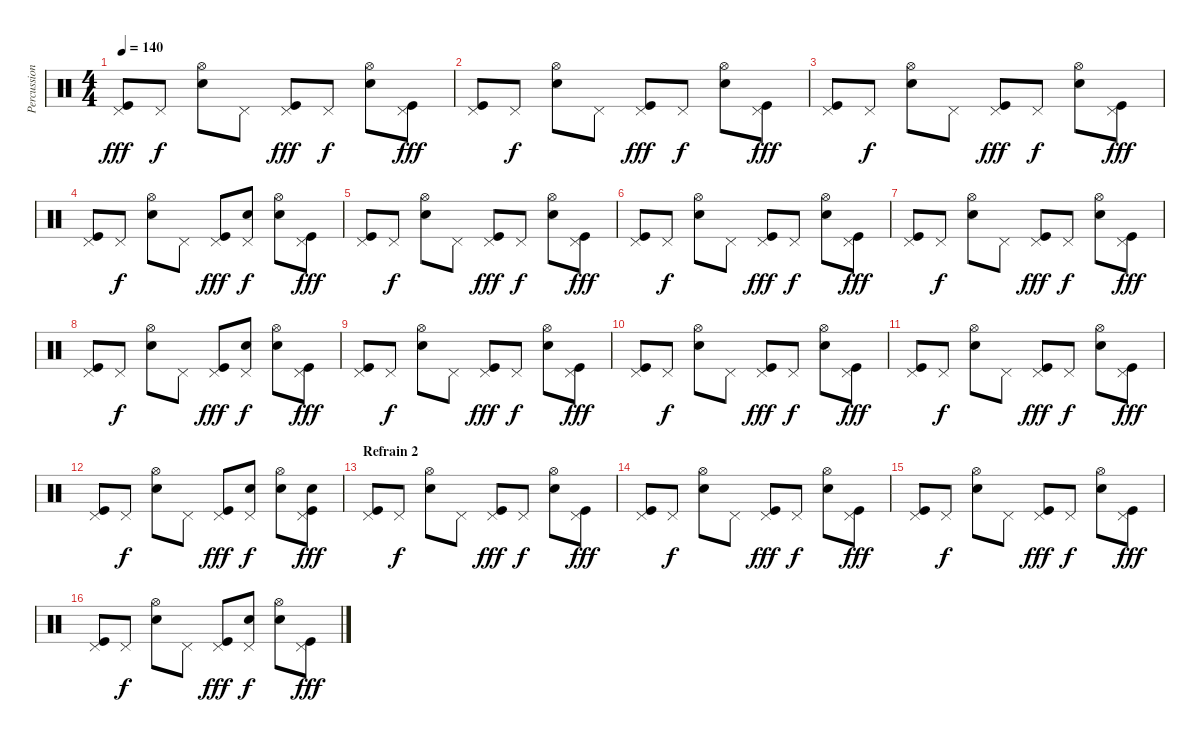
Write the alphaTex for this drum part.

\track ("Percussion" "Percussion") {instrument percussion}
\staff {score}
\articulation defaults
\ts (4 4)
\tempo 140
\clef neutral
\ks c
("Kick (hit)" "Pedal Hi-Hat (hit)").8{dy fff} "Pedal Hi-Hat (hit)".8{dy f} ("Metronome (bell)" "Hi-Hat (open)").8 "Pedal Hi-Hat (hit)".8 ("Kick (hit)" "Pedal Hi-Hat (hit)").8{dy fff} "Pedal Hi-Hat (hit)".8{dy f} ("Metronome (bell)" "Hi-Hat (open)").8 ("Kick (hit)" "Pedal Hi-Hat (hit)").8{dy fff} |
("Kick (hit)" "Pedal Hi-Hat (hit)").8 "Pedal Hi-Hat (hit)".8{dy f} ("Metronome (bell)" "Hi-Hat (open)").8 "Pedal Hi-Hat (hit)".8 ("Kick (hit)" "Pedal Hi-Hat (hit)").8{dy fff} "Pedal Hi-Hat (hit)".8{dy f} ("Metronome (bell)" "Hi-Hat (open)").8 ("Kick (hit)" "Pedal Hi-Hat (hit)").8{dy fff} |
("Kick (hit)" "Pedal Hi-Hat (hit)").8 "Pedal Hi-Hat (hit)".8{dy f} ("Metronome (bell)" "Hi-Hat (open)").8 "Pedal Hi-Hat (hit)".8 ("Kick (hit)" "Pedal Hi-Hat (hit)").8{dy fff} "Pedal Hi-Hat (hit)".8{dy f} ("Metronome (bell)" "Hi-Hat (open)").8 ("Kick (hit)" "Pedal Hi-Hat (hit)").8{dy fff} |
("Kick (hit)" "Pedal Hi-Hat (hit)").8 "Pedal Hi-Hat (hit)".8{dy f} ("Metronome (bell)" "Hi-Hat (open)").8 "Pedal Hi-Hat (hit)".8 ("Kick (hit)" "Pedal Hi-Hat (hit)").8{dy fff} ("Metronome (bell)" "Pedal Hi-Hat (hit)").8{dy f} ("Metronome (bell)" "Hi-Hat (open)").8 ("Kick (hit)" "Pedal Hi-Hat (hit)").8{dy fff} |
("Kick (hit)" "Pedal Hi-Hat (hit)").8 "Pedal Hi-Hat (hit)".8{dy f} ("Metronome (bell)" "Hi-Hat (open)").8 "Pedal Hi-Hat (hit)".8 ("Kick (hit)" "Pedal Hi-Hat (hit)").8{dy fff} "Pedal Hi-Hat (hit)".8{dy f} ("Metronome (bell)" "Hi-Hat (open)").8 ("Kick (hit)" "Pedal Hi-Hat (hit)").8{dy fff} |
("Kick (hit)" "Pedal Hi-Hat (hit)").8 "Pedal Hi-Hat (hit)".8{dy f} ("Metronome (bell)" "Hi-Hat (open)").8 "Pedal Hi-Hat (hit)".8 ("Kick (hit)" "Pedal Hi-Hat (hit)").8{dy fff} "Pedal Hi-Hat (hit)".8{dy f} ("Metronome (bell)" "Hi-Hat (open)").8 ("Kick (hit)" "Pedal Hi-Hat (hit)").8{dy fff} |
("Kick (hit)" "Pedal Hi-Hat (hit)").8 "Pedal Hi-Hat (hit)".8{dy f} ("Metronome (bell)" "Hi-Hat (open)").8 "Pedal Hi-Hat (hit)".8 ("Kick (hit)" "Pedal Hi-Hat (hit)").8{dy fff} "Pedal Hi-Hat (hit)".8{dy f} ("Metronome (bell)" "Hi-Hat (open)").8 ("Kick (hit)" "Pedal Hi-Hat (hit)").8{dy fff} |
("Kick (hit)" "Pedal Hi-Hat (hit)").8 "Pedal Hi-Hat (hit)".8{dy f} ("Metronome (bell)" "Hi-Hat (open)").8 "Pedal Hi-Hat (hit)".8 ("Kick (hit)" "Pedal Hi-Hat (hit)").8{dy fff} ("Metronome (bell)" "Pedal Hi-Hat (hit)").8{dy f} ("Metronome (bell)" "Hi-Hat (open)").8 ("Kick (hit)" "Pedal Hi-Hat (hit)").8{dy fff} |
("Kick (hit)" "Pedal Hi-Hat (hit)").8 "Pedal Hi-Hat (hit)".8{dy f} ("Metronome (bell)" "Hi-Hat (open)").8 "Pedal Hi-Hat (hit)".8 ("Kick (hit)" "Pedal Hi-Hat (hit)").8{dy fff} "Pedal Hi-Hat (hit)".8{dy f} ("Metronome (bell)" "Hi-Hat (open)").8 ("Kick (hit)" "Pedal Hi-Hat (hit)").8{dy fff} |
("Kick (hit)" "Pedal Hi-Hat (hit)").8 "Pedal Hi-Hat (hit)".8{dy f} ("Metronome (bell)" "Hi-Hat (open)").8 "Pedal Hi-Hat (hit)".8 ("Kick (hit)" "Pedal Hi-Hat (hit)").8{dy fff} "Pedal Hi-Hat (hit)".8{dy f} ("Metronome (bell)" "Hi-Hat (open)").8 ("Kick (hit)" "Pedal Hi-Hat (hit)").8{dy fff} |
("Kick (hit)" "Pedal Hi-Hat (hit)").8 "Pedal Hi-Hat (hit)".8{dy f} ("Metronome (bell)" "Hi-Hat (open)").8 "Pedal Hi-Hat (hit)".8 ("Kick (hit)" "Pedal Hi-Hat (hit)").8{dy fff} "Pedal Hi-Hat (hit)".8{dy f} ("Metronome (bell)" "Hi-Hat (open)").8 ("Kick (hit)" "Pedal Hi-Hat (hit)").8{dy fff} |
("Kick (hit)" "Pedal Hi-Hat (hit)").8 "Pedal Hi-Hat (hit)".8{dy f} ("Metronome (bell)" "Hi-Hat (open)").8 "Pedal Hi-Hat (hit)".8 ("Kick (hit)" "Pedal Hi-Hat (hit)").8{dy fff} ("Metronome (bell)" "Pedal Hi-Hat (hit)").8{dy f} ("Metronome (bell)" "Hi-Hat (open)").8 ("Kick (hit)" "Metronome (bell)" "Pedal Hi-Hat (hit)").8{dy fff} |
\section ("" "Refrain 2")
("Kick (hit)" "Pedal Hi-Hat (hit)").8 "Pedal Hi-Hat (hit)".8{dy f} ("Metronome (bell)" "Hi-Hat (open)").8 "Pedal Hi-Hat (hit)".8 ("Kick (hit)" "Pedal Hi-Hat (hit)").8{dy fff} "Pedal Hi-Hat (hit)".8{dy f} ("Metronome (bell)" "Hi-Hat (open)").8 ("Kick (hit)" "Pedal Hi-Hat (hit)").8{dy fff} |
("Kick (hit)" "Pedal Hi-Hat (hit)").8 "Pedal Hi-Hat (hit)".8{dy f} ("Metronome (bell)" "Hi-Hat (open)").8 "Pedal Hi-Hat (hit)".8 ("Kick (hit)" "Pedal Hi-Hat (hit)").8{dy fff} "Pedal Hi-Hat (hit)".8{dy f} ("Metronome (bell)" "Hi-Hat (open)").8 ("Kick (hit)" "Pedal Hi-Hat (hit)").8{dy fff} |
("Kick (hit)" "Pedal Hi-Hat (hit)").8 "Pedal Hi-Hat (hit)".8{dy f} ("Metronome (bell)" "Hi-Hat (open)").8 "Pedal Hi-Hat (hit)".8 ("Kick (hit)" "Pedal Hi-Hat (hit)").8{dy fff} "Pedal Hi-Hat (hit)".8{dy f} ("Metronome (bell)" "Hi-Hat (open)").8 ("Kick (hit)" "Pedal Hi-Hat (hit)").8{dy fff} |
("Kick (hit)" "Pedal Hi-Hat (hit)").8 "Pedal Hi-Hat (hit)".8{dy f} ("Metronome (bell)" "Hi-Hat (open)").8 "Pedal Hi-Hat (hit)".8 ("Kick (hit)" "Pedal Hi-Hat (hit)").8{dy fff} ("Metronome (bell)" "Pedal Hi-Hat (hit)").8{dy f} ("Metronome (bell)" "Hi-Hat (open)").8 ("Kick (hit)" "Pedal Hi-Hat (hit)").8{dy fff}
